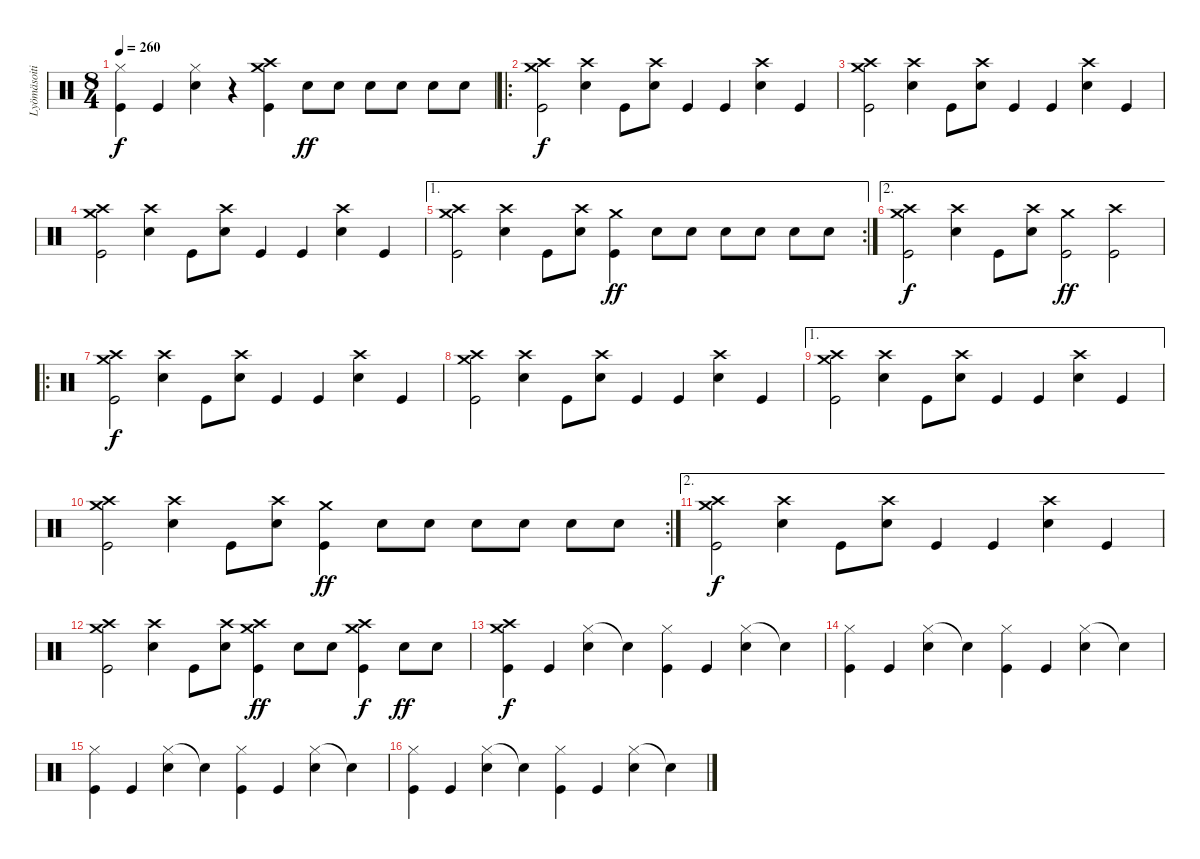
\track ("Lyömäsoitin" "Lyömäsoiti") {instrument percussion}
\staff {score}
\articulation defaults
\ts (8 4)
\tempo 260
\clef neutral
\ks c
("Hi-Hat (closed)" "Kick (hit)").4{dy f} "Kick (hit)".4 ("Hi-Hat (closed)" "Snare (hit) 2").4 r.4 ("Crash medium (hit)" "Crash high (hit)" "Kick (hit)").4 "Snare (hit) 2".8{dy ff} "Snare (hit) 2".8 "Snare (hit) 2".8 "Snare (hit) 2".8 "Snare (hit) 2".8 "Snare (hit) 2".8 |
\ro
("Crash medium (hit)" "Crash high (hit)" "Kick (hit)").2{dy f} ("Crash high (hit)" "Snare (hit) 2").4 "Kick (hit)".8 ("Crash high (hit)" "Snare (hit) 2").8 "Kick (hit)".4 "Kick (hit)".4 ("Crash high (hit)" "Snare (hit) 2").4 "Kick (hit)".4 |
("Crash medium (hit)" "Crash high (hit)" "Kick (hit)").2 ("Crash high (hit)" "Snare (hit) 2").4 "Kick (hit)".8 ("Crash high (hit)" "Snare (hit) 2").8 "Kick (hit)".4 "Kick (hit)".4 ("Crash high (hit)" "Snare (hit) 2").4 "Kick (hit)".4 |
("Crash medium (hit)" "Crash high (hit)" "Kick (hit)").2 ("Crash high (hit)" "Snare (hit) 2").4 "Kick (hit)".8 ("Crash high (hit)" "Snare (hit) 2").8 "Kick (hit)".4 "Kick (hit)".4 ("Crash high (hit)" "Snare (hit) 2").4 "Kick (hit)".4 |
\ae 1
\rc 2
("Crash medium (hit)" "Crash high (hit)" "Kick (hit)").2 ("Crash high (hit)" "Snare (hit) 2").4 "Kick (hit)".8 ("Crash high (hit)" "Snare (hit) 2").8 ("Crash medium (hit)" "Kick (hit)").4{dy ff} "Snare (hit) 2".8 "Snare (hit) 2".8 "Snare (hit) 2".8 "Snare (hit) 2".8 "Snare (hit) 2".8 "Snare (hit) 2".8 |
\ae 2
("Crash medium (hit)" "Crash high (hit)" "Kick (hit)").2{dy f} ("Crash high (hit)" "Snare (hit) 2").4 "Kick (hit)".8 ("Crash high (hit)" "Snare (hit) 2").8 ("Crash medium (hit)" "Kick (hit)").2{dy ff} ("Crash high (hit)" "Kick (hit)").2 |
\ro
("Crash medium (hit)" "Crash high (hit)" "Kick (hit)").2{dy f} ("Crash high (hit)" "Snare (hit) 2").4 "Kick (hit)".8 ("Crash high (hit)" "Snare (hit) 2").8 "Kick (hit)".4 "Kick (hit)".4 ("Crash high (hit)" "Snare (hit) 2").4 "Kick (hit)".4 |
("Crash medium (hit)" "Crash high (hit)" "Kick (hit)").2 ("Crash high (hit)" "Snare (hit) 2").4 "Kick (hit)".8 ("Crash high (hit)" "Snare (hit) 2").8 "Kick (hit)".4 "Kick (hit)".4 ("Crash high (hit)" "Snare (hit) 2").4 "Kick (hit)".4 |
\ae 1
("Crash medium (hit)" "Crash high (hit)" "Kick (hit)").2 ("Crash high (hit)" "Snare (hit) 2").4 "Kick (hit)".8 ("Crash high (hit)" "Snare (hit) 2").8 "Kick (hit)".4 "Kick (hit)".4 ("Crash high (hit)" "Snare (hit) 2").4 "Kick (hit)".4 |
\rc 2
("Crash medium (hit)" "Crash high (hit)" "Kick (hit)").2 ("Crash high (hit)" "Snare (hit) 2").4 "Kick (hit)".8 ("Crash high (hit)" "Snare (hit) 2").8 ("Crash medium (hit)" "Kick (hit)").4{dy ff} "Snare (hit) 2".8 "Snare (hit) 2".8 "Snare (hit) 2".8 "Snare (hit) 2".8 "Snare (hit) 2".8 "Snare (hit) 2".8 |
\ae 2
("Crash medium (hit)" "Crash high (hit)" "Kick (hit)").2{dy f} ("Crash high (hit)" "Snare (hit) 2").4 "Kick (hit)".8 ("Crash high (hit)" "Snare (hit) 2").8 "Kick (hit)".4 "Kick (hit)".4 ("Crash high (hit)" "Snare (hit) 2").4 "Kick (hit)".4 |
("Crash medium (hit)" "Crash high (hit)" "Kick (hit)").2 ("Crash high (hit)" "Snare (hit) 2").4 "Kick (hit)".8 ("Crash high (hit)" "Snare (hit) 2").8 ("Crash medium (hit)" "Crash high (hit)" "Kick (hit)").4{dy ff} "Snare (hit) 2".8 "Snare (hit) 2".8 ("Crash medium (hit)" "Crash high (hit)" "Kick (hit)").4{dy f} "Snare (hit) 2".8{dy ff} "Snare (hit) 2".8 |
("Crash medium (hit)" "Crash high (hit)" "Kick (hit)").4{dy f} "Kick (hit)".4 ("Hi-Hat (closed)" "Snare (hit) 2").4 "Snare (hit)"{t}.4 ("Hi-Hat (closed)" "Kick (hit)").4 "Kick (hit)".4 ("Hi-Hat (closed)" "Snare (hit) 2").4 "Snare (hit)"{t}.4 |
("Hi-Hat (closed)" "Kick (hit)").4 "Kick (hit)".4 ("Hi-Hat (closed)" "Snare (hit) 2").4 "Snare (hit)"{t}.4 ("Hi-Hat (closed)" "Kick (hit)").4 "Kick (hit)".4 ("Hi-Hat (closed)" "Snare (hit) 2").4 "Snare (hit)"{t}.4 |
("Hi-Hat (closed)" "Kick (hit)").4 "Kick (hit)".4 ("Hi-Hat (closed)" "Snare (hit) 2").4 "Snare (hit)"{t}.4 ("Hi-Hat (closed)" "Kick (hit)").4 "Kick (hit)".4 ("Hi-Hat (closed)" "Snare (hit) 2").4 "Snare (hit)"{t}.4 |
("Hi-Hat (closed)" "Kick (hit)").4 "Kick (hit)".4 ("Hi-Hat (closed)" "Snare (hit) 2").4 "Snare (hit)"{t}.4 ("Hi-Hat (closed)" "Kick (hit)").4 "Kick (hit)".4 ("Hi-Hat (closed)" "Snare (hit) 2").4 "Snare (hit)"{t}.4
